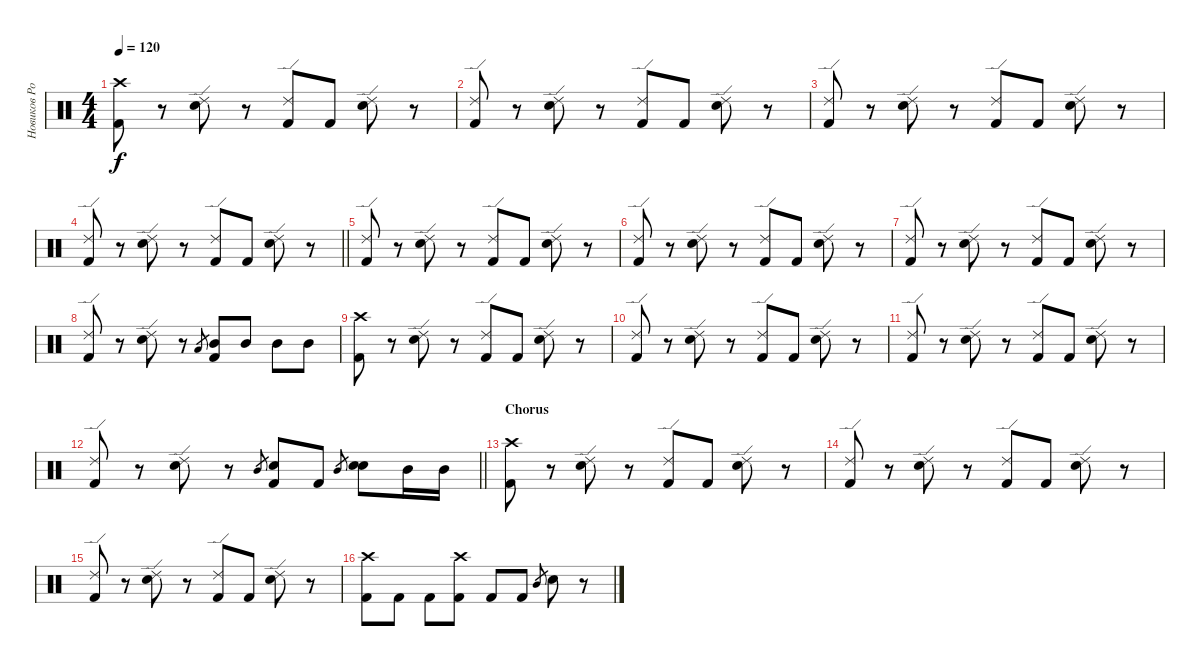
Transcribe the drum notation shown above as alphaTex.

\track ("Новиков Роман  ( Ударные )" "Новиков Ро") {instrument percussion}
\staff {score}
\articulation defaults
\ts (4 4)
\tempo 120
\clef neutral
\ks c
("Crash high (hit)" "Kick (hit) 2").8{dy f} r.8 ("Ride (edge) 2" "Electric Snare (hit)").8 r.8 ("Ride (edge) 2" "Kick (hit) 2").8 "Kick (hit) 2".8 ("Ride (edge) 2" "Electric Snare (hit)").8 r.8 |
("Ride (edge) 2" "Kick (hit) 2").8 r.8 ("Ride (edge) 2" "Electric Snare (hit)").8 r.8 ("Ride (edge) 2" "Kick (hit) 2").8 "Kick (hit) 2".8 ("Ride (edge) 2" "Electric Snare (hit)").8 r.8 |
("Ride (edge) 2" "Kick (hit) 2").8 r.8 ("Ride (edge) 2" "Electric Snare (hit)").8 r.8 ("Ride (edge) 2" "Kick (hit) 2").8 "Kick (hit) 2".8 ("Ride (edge) 2" "Electric Snare (hit)").8 r.8 |
\barLineRight lightlight
("Ride (edge) 2" "Kick (hit) 2").8 r.8 ("Ride (edge) 2" "Electric Snare (hit)").8 r.8 ("Ride (edge) 2" "Kick (hit) 2").8 "Kick (hit) 2".8 ("Ride (edge) 2" "Electric Snare (hit)").8 r.8 |
("Ride (edge) 2" "Kick (hit) 2").8 r.8 ("Ride (edge) 2" "Electric Snare (hit)").8 r.8 ("Ride (edge) 2" "Kick (hit) 2").8 "Kick (hit) 2".8 ("Ride (edge) 2" "Electric Snare (hit)").8 r.8 |
("Ride (edge) 2" "Kick (hit) 2").8 r.8 ("Ride (edge) 2" "Electric Snare (hit)").8 r.8 ("Ride (edge) 2" "Kick (hit) 2").8 "Kick (hit) 2".8 ("Ride (edge) 2" "Electric Snare (hit)").8 r.8 |
("Ride (edge) 2" "Kick (hit) 2").8 r.8 ("Ride (edge) 2" "Electric Snare (hit)").8 r.8 ("Ride (edge) 2" "Kick (hit) 2").8 "Kick (hit) 2".8 ("Ride (edge) 2" "Electric Snare (hit)").8 r.8 |
("Ride (edge) 2" "Kick (hit) 2").8 r.8 ("Ride (edge) 2" "Electric Snare (hit)").8 r.8 "Low Tom (hit)"{h}.8{gr} ("Mid Tom (hit)" "Kick (hit) 2").8 "Mid Tom (hit)".8 "Mid Tom (hit)".8 "Mid Tom (hit)".8 |
("Crash high (hit)" "Kick (hit) 2").8 r.8 ("Ride (edge) 2" "Electric Snare (hit)").8 r.8 ("Ride (edge) 2" "Kick (hit) 2").8 "Kick (hit) 2".8 ("Ride (edge) 2" "Electric Snare (hit)").8 r.8 |
("Ride (edge) 2" "Kick (hit) 2").8 r.8 ("Ride (edge) 2" "Electric Snare (hit)").8 r.8 ("Ride (edge) 2" "Kick (hit) 2").8 "Kick (hit) 2".8 ("Ride (edge) 2" "Electric Snare (hit)").8 r.8 |
("Ride (edge) 2" "Kick (hit) 2").8 r.8 ("Ride (edge) 2" "Electric Snare (hit)").8 r.8 ("Ride (edge) 2" "Kick (hit) 2").8 "Kick (hit) 2".8 ("Ride (edge) 2" "Electric Snare (hit)").8 r.8 |
\barLineRight lightlight
("Ride (edge) 2" "Kick (hit) 2").8 r.8 ("Ride (edge) 2" "Electric Snare (hit)").8 r.8 "Mid Tom (hit)"{h}.8{gr} ("Snare (hit) 2" "Kick (hit) 2").8 "Kick (hit) 2".8 "Mid Tom (hit)"{h}.8{gr} ("Snare (hit) 2" "Electric Snare (hit)").8 "Mid Tom (hit)".16 "Mid Tom (hit)".16 |
\section ("" "Chorus")
("Crash high (hit)" "Kick (hit) 2").8 r.8 ("Ride (edge) 2" "Electric Snare (hit)").8 r.8 ("Ride (edge) 2" "Kick (hit) 2").8 "Kick (hit) 2".8 ("Ride (edge) 2" "Electric Snare (hit)").8 r.8 |
("Ride (edge) 2" "Kick (hit) 2").8 r.8 ("Ride (edge) 2" "Electric Snare (hit)").8 r.8 ("Ride (edge) 2" "Kick (hit) 2").8 "Kick (hit) 2".8 ("Ride (edge) 2" "Electric Snare (hit)").8 r.8 |
("Ride (edge) 2" "Kick (hit) 2").8 r.8 ("Ride (edge) 2" "Electric Snare (hit)").8 r.8 ("Ride (edge) 2" "Kick (hit) 2").8 "Kick (hit) 2".8 ("Ride (edge) 2" "Electric Snare (hit)").8 r.8 |
("Crash high (hit)" "Kick (hit) 2").8 "Kick (hit) 2".8 "Kick (hit) 2".8 ("Kick (hit) 2" "Crash high (hit)").8 "Kick (hit) 2".8 "Kick (hit) 2".8 "Mid Tom (hit)"{h}.8{gr} "Snare (hit) 2".8 r.8
